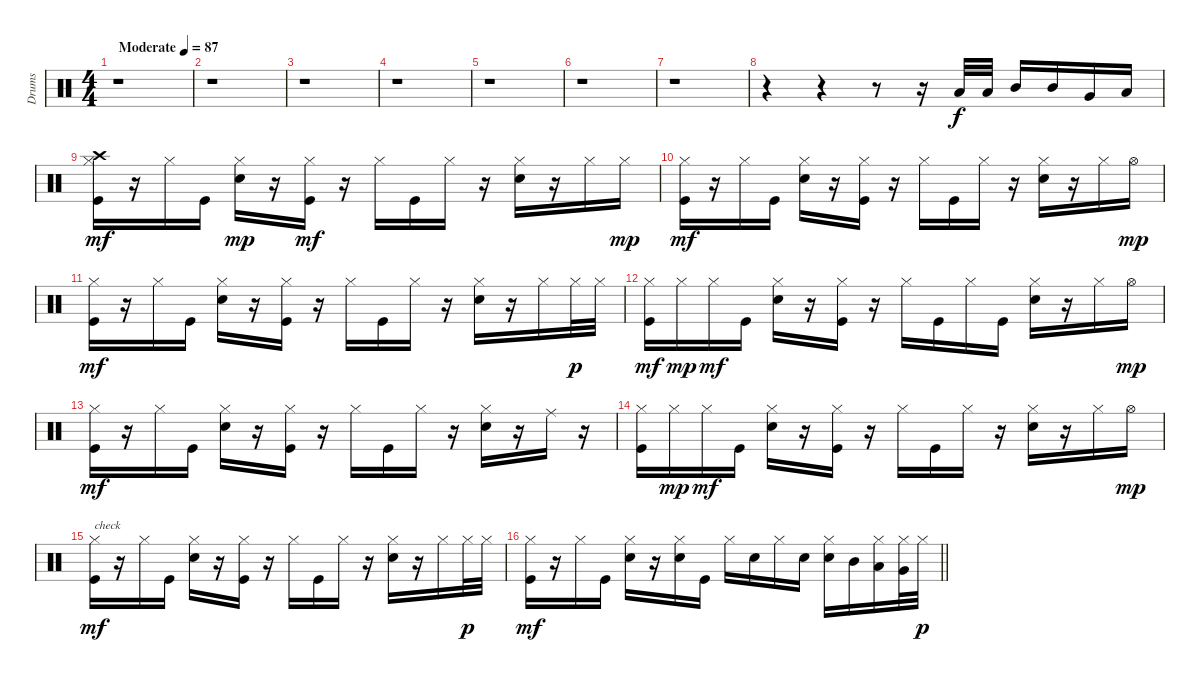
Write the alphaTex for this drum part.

\track ("Drums" "Drums") {instrument percussion}
\staff {score}
\articulation defaults
\ts (4 4)
\tempo (87 "Moderate")
\clef neutral
\ks c
r.1{dy f} |
r.1 |
r.1 |
r.1 |
r.1 |
r.1 |
r.1 |
r.4 r.4 r.8 r.16 "Low Tom (hit)".32 "Low Tom (hit)".32 "Mid Tom (hit)".16 "Mid Tom (hit)".16 "Very Low Tom (hit)".16 "Low Floor Tom (hit)".16 |
("Hi-Hat (closed)" "Crash high (hit)" "Kick (hit)").16{dy mf} r.16 "Hi-Hat (closed)".16 "Kick (hit)".16 ("Hi-Hat (closed)" "Electric Snare (hit)").16{dy mp} r.16 ("Hi-Hat (closed)" "Kick (hit)").16{dy mf} r.16 "Hi-Hat (closed)".16 "Kick (hit)".16 "Hi-Hat (closed)".16 r.16 ("Hi-Hat (closed)" "Electric Snare (hit)").16 r.16 "Hi-Hat (closed)".16 "Hi-Hat (closed)".16{dy mp} |
("Hi-Hat (closed)" "Kick (hit)").16{dy mf} r.16 "Hi-Hat (closed)".16 "Kick (hit)".16 ("Hi-Hat (closed)" "Electric Snare (hit)").16 r.16 ("Hi-Hat (closed)" "Kick (hit)").16 r.16 "Hi-Hat (closed)".16 "Kick (hit)".16 "Hi-Hat (closed)".16 r.16 ("Hi-Hat (closed)" "Electric Snare (hit)").16 r.16 "Hi-Hat (closed)".16 "Hi-Hat (open)".16{dy mp} |
("Hi-Hat (closed)" "Kick (hit)").16{dy mf} r.16 "Hi-Hat (closed)".16 "Kick (hit)".16 ("Hi-Hat (closed)" "Electric Snare (hit)").16 r.16 ("Hi-Hat (closed)" "Kick (hit)").16 r.16 "Hi-Hat (closed)".16 "Kick (hit)".16 "Hi-Hat (closed)".16 r.16 ("Hi-Hat (closed)" "Electric Snare (hit)").16 r.16 "Hi-Hat (closed)".16 "Hi-Hat (closed)".32{dy p} "Hi-Hat (closed)".32 |
("Hi-Hat (closed)" "Kick (hit)").16{dy mf} "Hi-Hat (closed)".16{dy mp} "Hi-Hat (closed)".16{dy mf} "Kick (hit)".16 ("Hi-Hat (closed)" "Electric Snare (hit)").16 r.16 ("Hi-Hat (closed)" "Kick (hit)").16 r.16 "Hi-Hat (closed)".16 "Kick (hit)".16 "Hi-Hat (closed)".16 "Kick (hit)".16 ("Hi-Hat (closed)" "Electric Snare (hit)").16 r.16 "Hi-Hat (closed)".16 "Hi-Hat (open)".16{dy mp} |
("Hi-Hat (closed)" "Kick (hit)").16{dy mf} r.16 "Hi-Hat (closed)".16 "Kick (hit)".16 ("Hi-Hat (closed)" "Electric Snare (hit)").16 r.16 ("Hi-Hat (closed)" "Kick (hit)").16 r.16 "Hi-Hat (closed)".16 "Kick (hit)".16 "Hi-Hat (closed)".16 r.16 ("Hi-Hat (closed)" "Electric Snare (hit)").16 r.16 "Ride (middle)".16 r.16 |
("Hi-Hat (closed)" "Kick (hit)").16 "Hi-Hat (closed)".16{dy mp} "Hi-Hat (closed)".16{dy mf} "Kick (hit)".16 ("Hi-Hat (closed)" "Electric Snare (hit)").16 r.16 ("Hi-Hat (closed)" "Kick (hit)").16 r.16 "Hi-Hat (closed)".16 "Kick (hit)".16 "Hi-Hat (closed)".16 r.16 ("Hi-Hat (closed)" "Electric Snare (hit)").16 r.16 "Hi-Hat (closed)".16 "Hi-Hat (open)".16{dy mp} |
("Hi-Hat (closed)" "Kick (hit)").16{txt "check" dy mf} r.16 "Hi-Hat (closed)".16 "Kick (hit)".16 ("Hi-Hat (closed)" "Electric Snare (hit)").16 r.16 ("Hi-Hat (closed)" "Kick (hit)").16 r.16 "Hi-Hat (closed)".16 "Kick (hit)".16 "Hi-Hat (closed)".16 r.16 ("Hi-Hat (closed)" "Electric Snare (hit)").16 r.16 "Hi-Hat (closed)".16 "Hi-Hat (closed)".32{dy p} "Hi-Hat (closed)".32 |
\barLineRight lightlight
("Hi-Hat (closed)" "Kick (hit)").16{dy mf} r.16 "Hi-Hat (closed)".16 "Kick (hit)".16 ("Hi-Hat (closed)" "Electric Snare (hit)").16 r.16 ("Hi-Hat (closed)" "Electric Snare (hit)").16 "Kick (hit)".16 "Hi-Hat (closed)".16 "Electric Snare (hit)".16 "Hi-Hat (closed)".16 "Electric Snare (hit)".16 ("Hi-Hat (closed)" "Electric Snare (hit)").16 "Mid Tom (hit)".16 ("Hi-Hat (closed)" "Low Tom (hit)").16 ("Hi-Hat (closed)" "Very Low Tom (hit)").32 "Hi-Hat (closed)".32{dy p}
